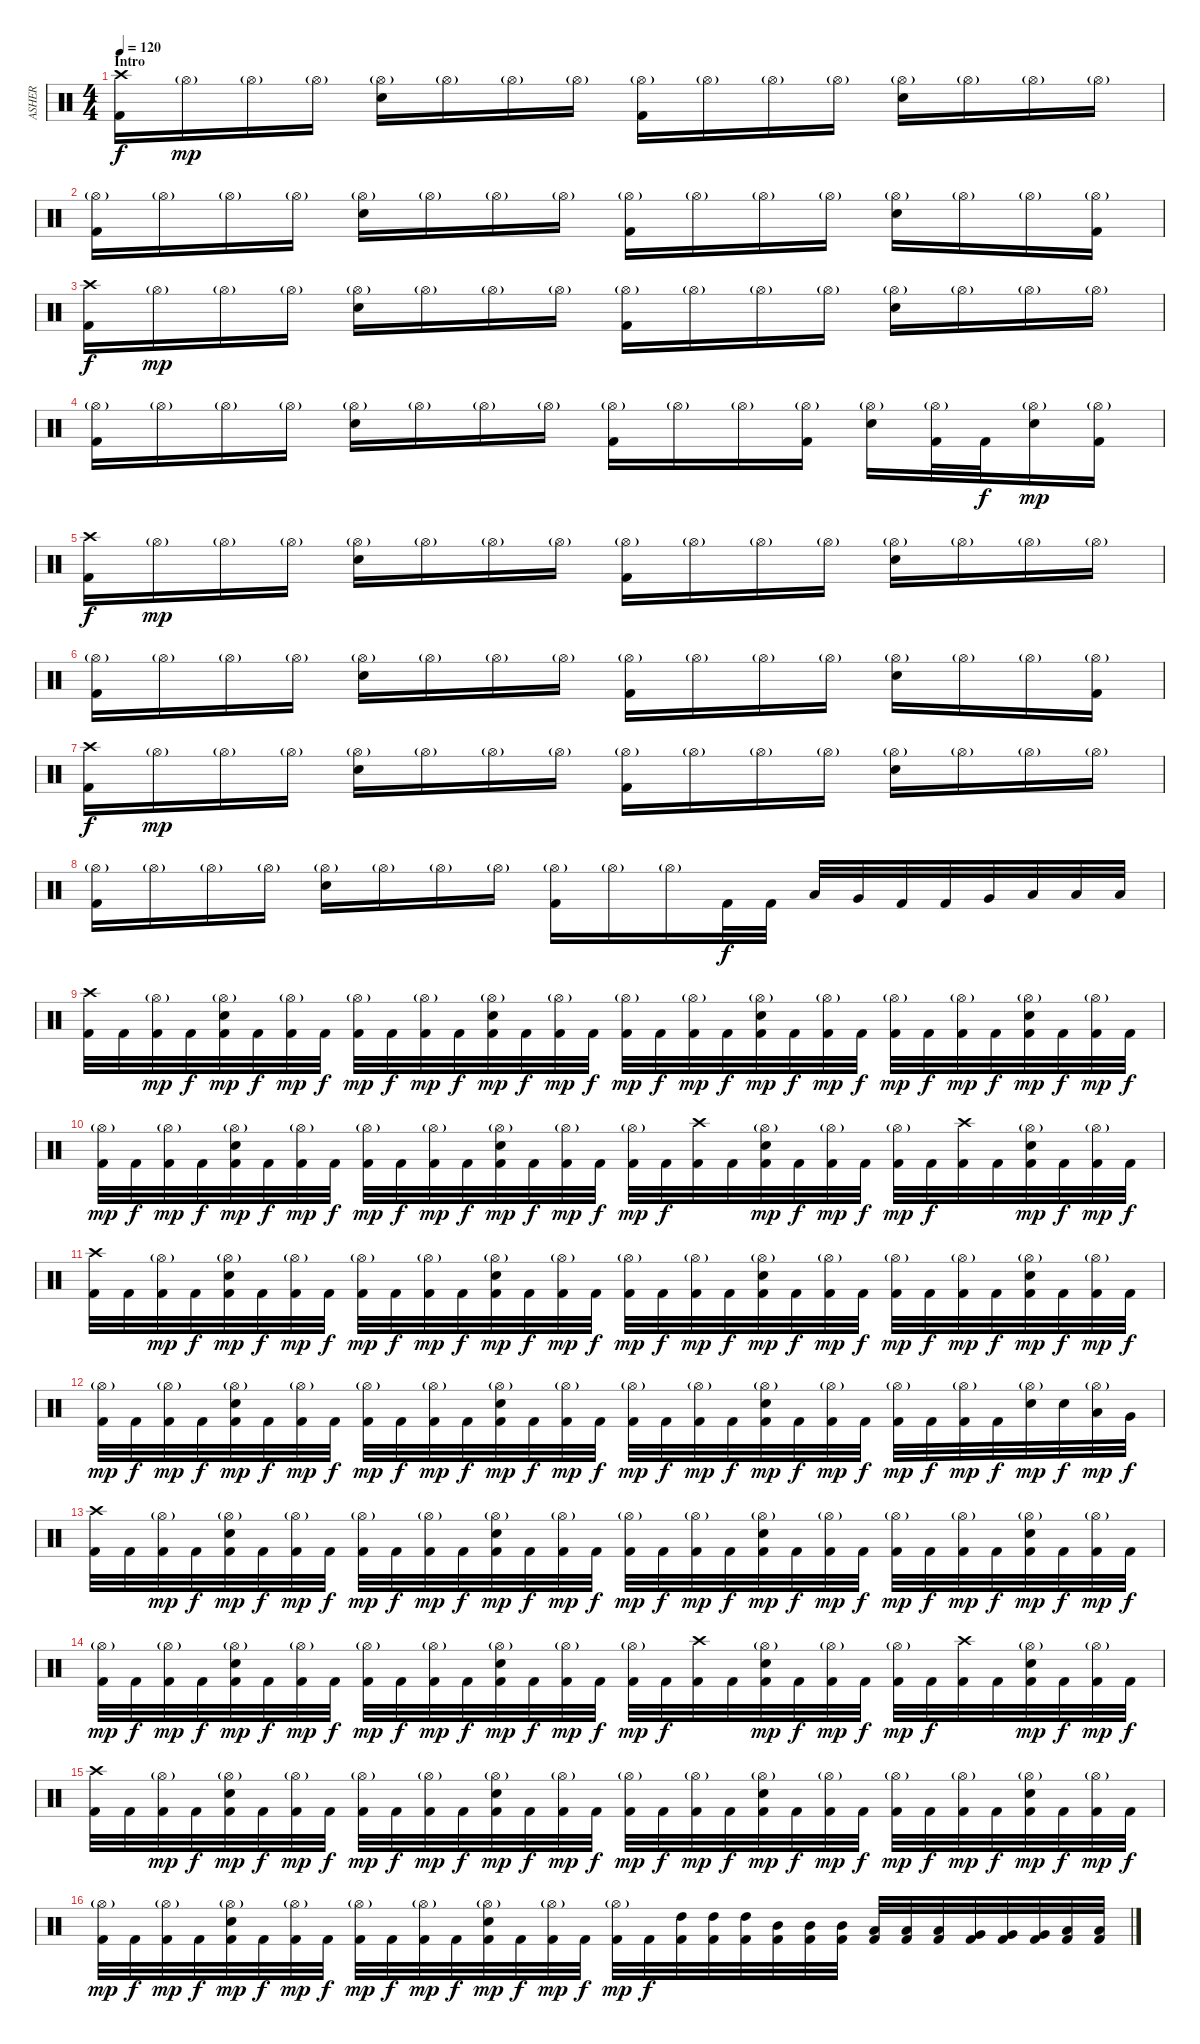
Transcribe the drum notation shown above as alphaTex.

\track ("ASHER" "ASHER") {instrument percussion}
\staff {score}
\articulation defaults
\ts (4 4)
\section ("" "Intro ")
\tempo 120
\tempo 60
\tempo 120
\clef neutral
\ks c
("Crash high (hit)" "Kick (hit) 2").16{dy f} "Hi-Hat (open)"{g}.16{dy mp} "Hi-Hat (open)"{g}.16 "Hi-Hat (open)"{g}.16 ("Hi-Hat (open)"{g} "Electric Snare (hit)").16 "Hi-Hat (open)"{g}.16 "Hi-Hat (open)"{g}.16 "Hi-Hat (open)"{g}.16 ("Hi-Hat (open)"{g} "Kick (hit) 2").16 "Hi-Hat (open)"{g}.16 "Hi-Hat (open)"{g}.16 "Hi-Hat (open)"{g}.16 ("Hi-Hat (open)"{g} "Electric Snare (hit)").16 "Hi-Hat (open)"{g}.16 "Hi-Hat (open)"{g}.16 "Hi-Hat (open)"{g}.16 |
("Hi-Hat (open)"{g} "Kick (hit) 2").16 "Hi-Hat (open)"{g}.16 "Hi-Hat (open)"{g}.16 "Hi-Hat (open)"{g}.16 ("Hi-Hat (open)"{g} "Electric Snare (hit)").16 "Hi-Hat (open)"{g}.16 "Hi-Hat (open)"{g}.16 "Hi-Hat (open)"{g}.16 ("Hi-Hat (open)"{g} "Kick (hit) 2").16 "Hi-Hat (open)"{g}.16 "Hi-Hat (open)"{g}.16 "Hi-Hat (open)"{g}.16 ("Hi-Hat (open)"{g} "Electric Snare (hit)").16 "Hi-Hat (open)"{g}.16 "Hi-Hat (open)"{g}.16 ("Hi-Hat (open)"{g} "Kick (hit) 2").16 |
("Crash high (hit)" "Kick (hit) 2").16{dy f} "Hi-Hat (open)"{g}.16{dy mp} "Hi-Hat (open)"{g}.16 "Hi-Hat (open)"{g}.16 ("Hi-Hat (open)"{g} "Electric Snare (hit)").16 "Hi-Hat (open)"{g}.16 "Hi-Hat (open)"{g}.16 "Hi-Hat (open)"{g}.16 ("Hi-Hat (open)"{g} "Kick (hit) 2").16 "Hi-Hat (open)"{g}.16 "Hi-Hat (open)"{g}.16 "Hi-Hat (open)"{g}.16 ("Hi-Hat (open)"{g} "Electric Snare (hit)").16 "Hi-Hat (open)"{g}.16 "Hi-Hat (open)"{g}.16 "Hi-Hat (open)"{g}.16 |
("Hi-Hat (open)"{g} "Kick (hit) 2").16 "Hi-Hat (open)"{g}.16 "Hi-Hat (open)"{g}.16 "Hi-Hat (open)"{g}.16 ("Hi-Hat (open)"{g} "Electric Snare (hit)").16 "Hi-Hat (open)"{g}.16 "Hi-Hat (open)"{g}.16 "Hi-Hat (open)"{g}.16 ("Hi-Hat (open)"{g} "Kick (hit) 2").16 "Hi-Hat (open)"{g}.16 "Hi-Hat (open)"{g}.16 ("Hi-Hat (open)"{g} "Kick (hit) 2").16 ("Hi-Hat (open)"{g} "Electric Snare (hit)").16 ("Hi-Hat (open)"{g} "Kick (hit) 2").32 "Kick (hit) 2".32{dy f} ("Hi-Hat (open)"{g} "Electric Snare (hit)").16{dy mp} ("Hi-Hat (open)"{g} "Kick (hit) 2").16 |
("Crash high (hit)" "Kick (hit) 2").16{dy f} "Hi-Hat (open)"{g}.16{dy mp} "Hi-Hat (open)"{g}.16 "Hi-Hat (open)"{g}.16 ("Hi-Hat (open)"{g} "Electric Snare (hit)").16 "Hi-Hat (open)"{g}.16 "Hi-Hat (open)"{g}.16 "Hi-Hat (open)"{g}.16 ("Hi-Hat (open)"{g} "Kick (hit) 2").16 "Hi-Hat (open)"{g}.16 "Hi-Hat (open)"{g}.16 "Hi-Hat (open)"{g}.16 ("Hi-Hat (open)"{g} "Electric Snare (hit)").16 "Hi-Hat (open)"{g}.16 "Hi-Hat (open)"{g}.16 "Hi-Hat (open)"{g}.16 |
("Hi-Hat (open)"{g} "Kick (hit) 2").16 "Hi-Hat (open)"{g}.16 "Hi-Hat (open)"{g}.16 "Hi-Hat (open)"{g}.16 ("Hi-Hat (open)"{g} "Electric Snare (hit)").16 "Hi-Hat (open)"{g}.16 "Hi-Hat (open)"{g}.16 "Hi-Hat (open)"{g}.16 ("Hi-Hat (open)"{g} "Kick (hit) 2").16 "Hi-Hat (open)"{g}.16 "Hi-Hat (open)"{g}.16 "Hi-Hat (open)"{g}.16 ("Hi-Hat (open)"{g} "Electric Snare (hit)").16 "Hi-Hat (open)"{g}.16 "Hi-Hat (open)"{g}.16 ("Hi-Hat (open)"{g} "Kick (hit) 2").16 |
("Crash high (hit)" "Kick (hit) 2").16{dy f} "Hi-Hat (open)"{g}.16{dy mp} "Hi-Hat (open)"{g}.16 "Hi-Hat (open)"{g}.16 ("Hi-Hat (open)"{g} "Electric Snare (hit)").16 "Hi-Hat (open)"{g}.16 "Hi-Hat (open)"{g}.16 "Hi-Hat (open)"{g}.16 ("Hi-Hat (open)"{g} "Kick (hit) 2").16 "Hi-Hat (open)"{g}.16 "Hi-Hat (open)"{g}.16 "Hi-Hat (open)"{g}.16 ("Hi-Hat (open)"{g} "Electric Snare (hit)").16 "Hi-Hat (open)"{g}.16 "Hi-Hat (open)"{g}.16 "Hi-Hat (open)"{g}.16 |
("Hi-Hat (open)"{g} "Kick (hit) 2").16 "Hi-Hat (open)"{g}.16 "Hi-Hat (open)"{g}.16 "Hi-Hat (open)"{g}.16 ("Hi-Hat (open)"{g} "Electric Snare (hit)").16 "Hi-Hat (open)"{g}.16 "Hi-Hat (open)"{g}.16 "Hi-Hat (open)"{g}.16 ("Hi-Hat (open)"{g} "Kick (hit) 2").16 "Hi-Hat (open)"{g}.16 "Hi-Hat (open)"{g}.16 "Kick (hit) 2".32{dy f} "Kick (hit) 2".32 "Low Tom (hit)".32 "Very Low Tom (hit)".32 "Kick (hit) 2".32 "Kick (hit) 2".32 "Very Low Tom (hit)".32 "Low Floor Tom (hit)".32 "Low Floor Tom (hit)".32 "Low Floor Tom (hit)".32 |
("Crash high (hit)" "Kick (hit) 2").32 "Kick (hit) 2".32 ("Hi-Hat (open)"{g} "Kick (hit) 2").32{dy mp} "Kick (hit) 2".32{dy f} ("Hi-Hat (open)"{g} "Electric Snare (hit)" "Kick (hit) 2").32{dy mp} "Kick (hit) 2".32{dy f} ("Hi-Hat (open)"{g} "Kick (hit) 2").32{dy mp} "Kick (hit) 2".32{dy f} ("Hi-Hat (open)"{g} "Kick (hit) 2").32{dy mp} "Kick (hit) 2".32{dy f} ("Hi-Hat (open)"{g} "Kick (hit) 2").32{dy mp} "Kick (hit) 2".32{dy f} ("Hi-Hat (open)"{g} "Electric Snare (hit)" "Kick (hit) 2").32{dy mp} "Kick (hit) 2".32{dy f} ("Hi-Hat (open)"{g} "Kick (hit) 2").32{dy mp} "Kick (hit) 2".32{dy f} ("Hi-Hat (open)"{g} "Kick (hit) 2").32{dy mp} "Kick (hit) 2".32{dy f} ("Hi-Hat (open)"{g} "Kick (hit) 2").32{dy mp} "Kick (hit) 2".32{dy f} ("Hi-Hat (open)"{g} "Electric Snare (hit)" "Kick (hit) 2").32{dy mp} "Kick (hit) 2".32{dy f} ("Hi-Hat (open)"{g} "Kick (hit) 2").32{dy mp} "Kick (hit) 2".32{dy f} ("Hi-Hat (open)"{g} "Kick (hit) 2").32{dy mp} "Kick (hit) 2".32{dy f} ("Hi-Hat (open)"{g} "Kick (hit) 2").32{dy mp} "Kick (hit) 2".32{dy f} ("Hi-Hat (open)"{g} "Electric Snare (hit)" "Kick (hit) 2").32{dy mp} "Kick (hit) 2".32{dy f} ("Hi-Hat (open)"{g} "Kick (hit) 2").32{dy mp} "Kick (hit) 2".32{dy f} |
("Hi-Hat (open)"{g} "Kick (hit) 2").32{dy mp} "Kick (hit) 2".32{dy f} ("Hi-Hat (open)"{g} "Kick (hit) 2").32{dy mp} "Kick (hit) 2".32{dy f} ("Hi-Hat (open)"{g} "Electric Snare (hit)" "Kick (hit) 2").32{dy mp} "Kick (hit) 2".32{dy f} ("Hi-Hat (open)"{g} "Kick (hit) 2").32{dy mp} "Kick (hit) 2".32{dy f} ("Hi-Hat (open)"{g} "Kick (hit) 2").32{dy mp} "Kick (hit) 2".32{dy f} ("Hi-Hat (open)"{g} "Kick (hit) 2").32{dy mp} "Kick (hit) 2".32{dy f} ("Hi-Hat (open)"{g} "Electric Snare (hit)" "Kick (hit) 2").32{dy mp} "Kick (hit) 2".32{dy f} ("Hi-Hat (open)"{g} "Kick (hit) 2").32{dy mp} "Kick (hit) 2".32{dy f} ("Hi-Hat (open)"{g} "Kick (hit) 2").32{dy mp} "Kick (hit) 2".32{dy f} ("Crash high (hit)" "Kick (hit) 2").32 "Kick (hit) 2".32 ("Hi-Hat (open)"{g} "Electric Snare (hit)" "Kick (hit) 2").32{dy mp} "Kick (hit) 2".32{dy f} ("Hi-Hat (open)"{g} "Kick (hit) 2").32{dy mp} "Kick (hit) 2".32{dy f} ("Hi-Hat (open)"{g} "Kick (hit) 2").32{dy mp} "Kick (hit) 2".32{dy f} ("Crash high (hit)" "Kick (hit) 2").32 "Kick (hit) 2".32 ("Hi-Hat (open)"{g} "Electric Snare (hit)" "Kick (hit) 2").32{dy mp} "Kick (hit) 2".32{dy f} ("Hi-Hat (open)"{g} "Kick (hit) 2").32{dy mp} "Kick (hit) 2".32{dy f} |
("Crash high (hit)" "Kick (hit) 2").32 "Kick (hit) 2".32 ("Hi-Hat (open)"{g} "Kick (hit) 2").32{dy mp} "Kick (hit) 2".32{dy f} ("Hi-Hat (open)"{g} "Electric Snare (hit)" "Kick (hit) 2").32{dy mp} "Kick (hit) 2".32{dy f} ("Hi-Hat (open)"{g} "Kick (hit) 2").32{dy mp} "Kick (hit) 2".32{dy f} ("Hi-Hat (open)"{g} "Kick (hit) 2").32{dy mp} "Kick (hit) 2".32{dy f} ("Hi-Hat (open)"{g} "Kick (hit) 2").32{dy mp} "Kick (hit) 2".32{dy f} ("Hi-Hat (open)"{g} "Electric Snare (hit)" "Kick (hit) 2").32{dy mp} "Kick (hit) 2".32{dy f} ("Hi-Hat (open)"{g} "Kick (hit) 2").32{dy mp} "Kick (hit) 2".32{dy f} ("Hi-Hat (open)"{g} "Kick (hit) 2").32{dy mp} "Kick (hit) 2".32{dy f} ("Hi-Hat (open)"{g} "Kick (hit) 2").32{dy mp} "Kick (hit) 2".32{dy f} ("Hi-Hat (open)"{g} "Electric Snare (hit)" "Kick (hit) 2").32{dy mp} "Kick (hit) 2".32{dy f} ("Hi-Hat (open)"{g} "Kick (hit) 2").32{dy mp} "Kick (hit) 2".32{dy f} ("Hi-Hat (open)"{g} "Kick (hit) 2").32{dy mp} "Kick (hit) 2".32{dy f} ("Hi-Hat (open)"{g} "Kick (hit) 2").32{dy mp} "Kick (hit) 2".32{dy f} ("Hi-Hat (open)"{g} "Electric Snare (hit)" "Kick (hit) 2").32{dy mp} "Kick (hit) 2".32{dy f} ("Hi-Hat (open)"{g} "Kick (hit) 2").32{dy mp} "Kick (hit) 2".32{dy f} |
("Hi-Hat (open)"{g} "Kick (hit) 2").32{dy mp} "Kick (hit) 2".32{dy f} ("Hi-Hat (open)"{g} "Kick (hit) 2").32{dy mp} "Kick (hit) 2".32{dy f} ("Hi-Hat (open)"{g} "Electric Snare (hit)" "Kick (hit) 2").32{dy mp} "Kick (hit) 2".32{dy f} ("Hi-Hat (open)"{g} "Kick (hit) 2").32{dy mp} "Kick (hit) 2".32{dy f} ("Hi-Hat (open)"{g} "Kick (hit) 2").32{dy mp} "Kick (hit) 2".32{dy f} ("Hi-Hat (open)"{g} "Kick (hit) 2").32{dy mp} "Kick (hit) 2".32{dy f} ("Hi-Hat (open)"{g} "Electric Snare (hit)" "Kick (hit) 2").32{dy mp} "Kick (hit) 2".32{dy f} ("Hi-Hat (open)"{g} "Kick (hit) 2").32{dy mp} "Kick (hit) 2".32{dy f} ("Hi-Hat (open)"{g} "Kick (hit) 2").32{dy mp} "Kick (hit) 2".32{dy f} ("Hi-Hat (open)"{g} "Kick (hit) 2").32{dy mp} "Kick (hit) 2".32{dy f} ("Hi-Hat (open)"{g} "Electric Snare (hit)" "Kick (hit) 2").32{dy mp} "Kick (hit) 2".32{dy f} ("Hi-Hat (open)"{g} "Kick (hit) 2").32{dy mp} "Kick (hit) 2".32{dy f} ("Hi-Hat (open)"{g} "Kick (hit) 2").32{dy mp} "Kick (hit) 2".32{dy f} ("Hi-Hat (open)"{g} "Kick (hit) 2").32{dy mp} "Kick (hit) 2".32{dy f} ("Hi-Hat (open)"{g} "Electric Snare (hit)").32{dy mp} "Electric Snare (hit)".32{dy f} ("Hi-Hat (open)"{g} "Low Tom (hit)").32{dy mp} "Very Low Tom (hit)".32{dy f} |
("Crash high (hit)" "Kick (hit) 2").32 "Kick (hit) 2".32 ("Hi-Hat (open)"{g} "Kick (hit) 2").32{dy mp} "Kick (hit) 2".32{dy f} ("Hi-Hat (open)"{g} "Electric Snare (hit)" "Kick (hit) 2").32{dy mp} "Kick (hit) 2".32{dy f} ("Hi-Hat (open)"{g} "Kick (hit) 2").32{dy mp} "Kick (hit) 2".32{dy f} ("Hi-Hat (open)"{g} "Kick (hit) 2").32{dy mp} "Kick (hit) 2".32{dy f} ("Hi-Hat (open)"{g} "Kick (hit) 2").32{dy mp} "Kick (hit) 2".32{dy f} ("Hi-Hat (open)"{g} "Electric Snare (hit)" "Kick (hit) 2").32{dy mp} "Kick (hit) 2".32{dy f} ("Hi-Hat (open)"{g} "Kick (hit) 2").32{dy mp} "Kick (hit) 2".32{dy f} ("Hi-Hat (open)"{g} "Kick (hit) 2").32{dy mp} "Kick (hit) 2".32{dy f} ("Hi-Hat (open)"{g} "Kick (hit) 2").32{dy mp} "Kick (hit) 2".32{dy f} ("Hi-Hat (open)"{g} "Electric Snare (hit)" "Kick (hit) 2").32{dy mp} "Kick (hit) 2".32{dy f} ("Hi-Hat (open)"{g} "Kick (hit) 2").32{dy mp} "Kick (hit) 2".32{dy f} ("Hi-Hat (open)"{g} "Kick (hit) 2").32{dy mp} "Kick (hit) 2".32{dy f} ("Hi-Hat (open)"{g} "Kick (hit) 2").32{dy mp} "Kick (hit) 2".32{dy f} ("Hi-Hat (open)"{g} "Electric Snare (hit)" "Kick (hit) 2").32{dy mp} "Kick (hit) 2".32{dy f} ("Hi-Hat (open)"{g} "Kick (hit) 2").32{dy mp} "Kick (hit) 2".32{dy f} |
("Hi-Hat (open)"{g} "Kick (hit) 2").32{dy mp} "Kick (hit) 2".32{dy f} ("Hi-Hat (open)"{g} "Kick (hit) 2").32{dy mp} "Kick (hit) 2".32{dy f} ("Hi-Hat (open)"{g} "Electric Snare (hit)" "Kick (hit) 2").32{dy mp} "Kick (hit) 2".32{dy f} ("Hi-Hat (open)"{g} "Kick (hit) 2").32{dy mp} "Kick (hit) 2".32{dy f} ("Hi-Hat (open)"{g} "Kick (hit) 2").32{dy mp} "Kick (hit) 2".32{dy f} ("Hi-Hat (open)"{g} "Kick (hit) 2").32{dy mp} "Kick (hit) 2".32{dy f} ("Hi-Hat (open)"{g} "Electric Snare (hit)" "Kick (hit) 2").32{dy mp} "Kick (hit) 2".32{dy f} ("Hi-Hat (open)"{g} "Kick (hit) 2").32{dy mp} "Kick (hit) 2".32{dy f} ("Hi-Hat (open)"{g} "Kick (hit) 2").32{dy mp} "Kick (hit) 2".32{dy f} ("Crash high (hit)" "Kick (hit) 2").32 "Kick (hit) 2".32 ("Hi-Hat (open)"{g} "Electric Snare (hit)" "Kick (hit) 2").32{dy mp} "Kick (hit) 2".32{dy f} ("Hi-Hat (open)"{g} "Kick (hit) 2").32{dy mp} "Kick (hit) 2".32{dy f} ("Hi-Hat (open)"{g} "Kick (hit) 2").32{dy mp} "Kick (hit) 2".32{dy f} ("Crash high (hit)" "Kick (hit) 2").32 "Kick (hit) 2".32 ("Hi-Hat (open)"{g} "Electric Snare (hit)" "Kick (hit) 2").32{dy mp} "Kick (hit) 2".32{dy f} ("Hi-Hat (open)"{g} "Kick (hit) 2").32{dy mp} "Kick (hit) 2".32{dy f} |
("Crash high (hit)" "Kick (hit) 2").32 "Kick (hit) 2".32 ("Hi-Hat (open)"{g} "Kick (hit) 2").32{dy mp} "Kick (hit) 2".32{dy f} ("Hi-Hat (open)"{g} "Electric Snare (hit)" "Kick (hit) 2").32{dy mp} "Kick (hit) 2".32{dy f} ("Hi-Hat (open)"{g} "Kick (hit) 2").32{dy mp} "Kick (hit) 2".32{dy f} ("Hi-Hat (open)"{g} "Kick (hit) 2").32{dy mp} "Kick (hit) 2".32{dy f} ("Hi-Hat (open)"{g} "Kick (hit) 2").32{dy mp} "Kick (hit) 2".32{dy f} ("Hi-Hat (open)"{g} "Electric Snare (hit)" "Kick (hit) 2").32{dy mp} "Kick (hit) 2".32{dy f} ("Hi-Hat (open)"{g} "Kick (hit) 2").32{dy mp} "Kick (hit) 2".32{dy f} ("Hi-Hat (open)"{g} "Kick (hit) 2").32{dy mp} "Kick (hit) 2".32{dy f} ("Hi-Hat (open)"{g} "Kick (hit) 2").32{dy mp} "Kick (hit) 2".32{dy f} ("Hi-Hat (open)"{g} "Electric Snare (hit)" "Kick (hit) 2").32{dy mp} "Kick (hit) 2".32{dy f} ("Hi-Hat (open)"{g} "Kick (hit) 2").32{dy mp} "Kick (hit) 2".32{dy f} ("Hi-Hat (open)"{g} "Kick (hit) 2").32{dy mp} "Kick (hit) 2".32{dy f} ("Hi-Hat (open)"{g} "Kick (hit) 2").32{dy mp} "Kick (hit) 2".32{dy f} ("Hi-Hat (open)"{g} "Electric Snare (hit)" "Kick (hit) 2").32{dy mp} "Kick (hit) 2".32{dy f} ("Hi-Hat (open)"{g} "Kick (hit) 2").32{dy mp} "Kick (hit) 2".32{dy f} |
("Hi-Hat (open)"{g} "Kick (hit) 2").32{dy mp} "Kick (hit) 2".32{dy f} ("Hi-Hat (open)"{g} "Kick (hit) 2").32{dy mp} "Kick (hit) 2".32{dy f} ("Hi-Hat (open)"{g} "Electric Snare (hit)" "Kick (hit) 2").32{dy mp} "Kick (hit) 2".32{dy f} ("Hi-Hat (open)"{g} "Kick (hit) 2").32{dy mp} "Kick (hit) 2".32{dy f} ("Hi-Hat (open)"{g} "Kick (hit) 2").32{dy mp} "Kick (hit) 2".32{dy f} ("Hi-Hat (open)"{g} "Kick (hit) 2").32{dy mp} "Kick (hit) 2".32{dy f} ("Hi-Hat (open)"{g} "Electric Snare (hit)" "Kick (hit) 2").32{dy mp} "Kick (hit) 2".32{dy f} ("Hi-Hat (open)"{g} "Kick (hit) 2").32{dy mp} "Kick (hit) 2".32{dy f} ("Hi-Hat (open)"{g} "Kick (hit) 2").32{dy mp} "Kick (hit) 2".32{dy f} ("High Tom (hit)" "Kick (hit) 2").32 ("High Tom (hit)" "Kick (hit) 2").32 ("High Tom (hit)" "Kick (hit) 2").32 ("Mid Tom (hit)" "Kick (hit) 2").32 ("Mid Tom (hit)" "Kick (hit) 2").32 ("Mid Tom (hit)" "Kick (hit) 2").32 ("Low Tom (hit)" "Kick (hit) 2").32 ("Low Tom (hit)" "Kick (hit) 2").32 ("Low Tom (hit)" "Kick (hit) 2").32 ("Very Low Tom (hit)" "Kick (hit) 2").32 ("Very Low Tom (hit)" "Kick (hit) 2").32 ("Very Low Tom (hit)" "Kick (hit) 2").32 ("Low Floor Tom (hit)" "Kick (hit) 2").32 ("Low Floor Tom (hit)" "Kick (hit) 2").32
